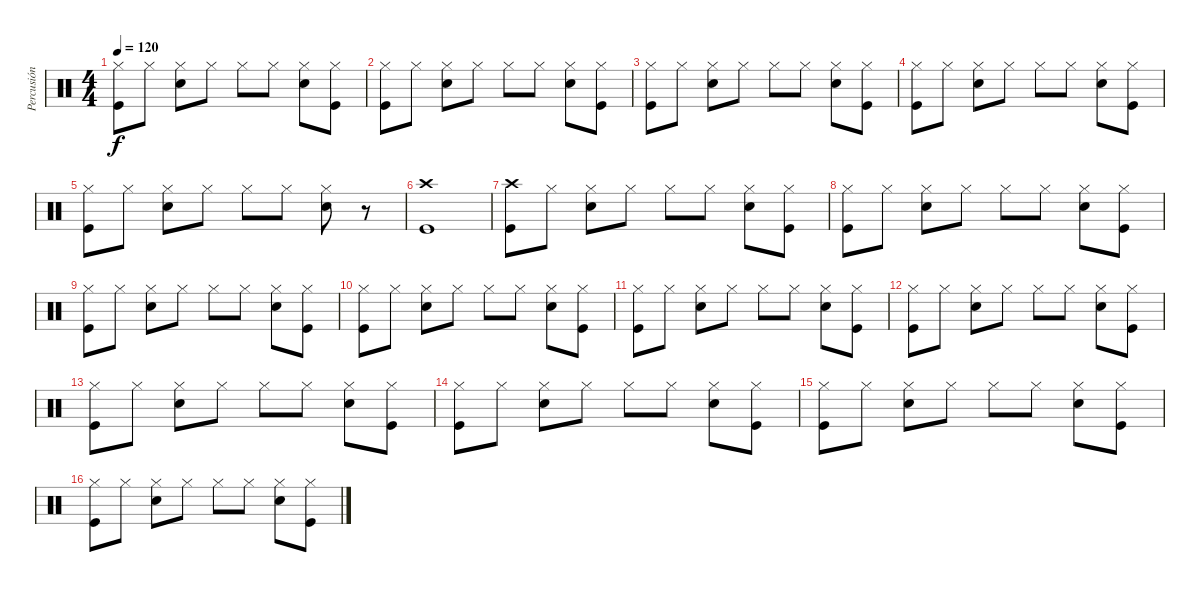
\track ("Percusión" "Percusión") {instrument percussion}
\staff {score}
\articulation defaults
\ts (4 4)
\tempo 120
\clef neutral
\ks c
("Hi-Hat (closed)" "Kick (hit)").8{dy f} "Hi-Hat (closed)".8 ("Hi-Hat (closed)" "Snare (hit) 2").8 "Hi-Hat (closed)".8 "Hi-Hat (closed)".8 "Hi-Hat (closed)".8 ("Hi-Hat (closed)" "Snare (hit) 2").8 ("Hi-Hat (closed)" "Kick (hit)").8 |
("Hi-Hat (closed)" "Kick (hit)").8 "Hi-Hat (closed)".8 ("Hi-Hat (closed)" "Snare (hit) 2").8 "Hi-Hat (closed)".8 "Hi-Hat (closed)".8 "Hi-Hat (closed)".8 ("Hi-Hat (closed)" "Snare (hit) 2").8 ("Hi-Hat (closed)" "Kick (hit)").8 |
("Hi-Hat (closed)" "Kick (hit)").8 "Hi-Hat (closed)".8 ("Hi-Hat (closed)" "Snare (hit) 2").8 "Hi-Hat (closed)".8 "Hi-Hat (closed)".8 "Hi-Hat (closed)".8 ("Hi-Hat (closed)" "Snare (hit) 2").8 ("Hi-Hat (closed)" "Kick (hit)").8 |
("Hi-Hat (closed)" "Kick (hit)").8 "Hi-Hat (closed)".8 ("Hi-Hat (closed)" "Snare (hit) 2").8 "Hi-Hat (closed)".8 "Hi-Hat (closed)".8 "Hi-Hat (closed)".8 ("Hi-Hat (closed)" "Snare (hit) 2").8 ("Hi-Hat (closed)" "Kick (hit)").8 |
("Hi-Hat (closed)" "Kick (hit)").8 "Hi-Hat (closed)".8 ("Hi-Hat (closed)" "Snare (hit) 2").8 "Hi-Hat (closed)".8 "Hi-Hat (closed)".8 "Hi-Hat (closed)".8 ("Hi-Hat (closed)" "Snare (hit) 2").8 r.8 |
("Crash high (hit)" "Kick (hit)").1 |
("Crash high (hit)" "Kick (hit)").8 "Hi-Hat (closed)".8 ("Hi-Hat (closed)" "Snare (hit) 2").8 "Hi-Hat (closed)".8 "Hi-Hat (closed)".8 "Hi-Hat (closed)".8 ("Hi-Hat (closed)" "Snare (hit) 2").8 ("Hi-Hat (closed)" "Kick (hit)").8 |
("Hi-Hat (closed)" "Kick (hit)").8 "Hi-Hat (closed)".8 ("Hi-Hat (closed)" "Snare (hit) 2").8 "Hi-Hat (closed)".8 "Hi-Hat (closed)".8 "Hi-Hat (closed)".8 ("Hi-Hat (closed)" "Snare (hit) 2").8 ("Hi-Hat (closed)" "Kick (hit)").8 |
("Hi-Hat (closed)" "Kick (hit)").8 "Hi-Hat (closed)".8 ("Hi-Hat (closed)" "Snare (hit) 2").8 "Hi-Hat (closed)".8 "Hi-Hat (closed)".8 "Hi-Hat (closed)".8 ("Hi-Hat (closed)" "Snare (hit) 2").8 ("Hi-Hat (closed)" "Kick (hit)").8 |
("Hi-Hat (closed)" "Kick (hit)").8 "Hi-Hat (closed)".8 ("Hi-Hat (closed)" "Snare (hit) 2").8 "Hi-Hat (closed)".8 "Hi-Hat (closed)".8 "Hi-Hat (closed)".8 ("Hi-Hat (closed)" "Snare (hit) 2").8 ("Hi-Hat (closed)" "Kick (hit)").8 |
("Hi-Hat (closed)" "Kick (hit)").8 "Hi-Hat (closed)".8 ("Hi-Hat (closed)" "Snare (hit) 2").8 "Hi-Hat (closed)".8 "Hi-Hat (closed)".8 "Hi-Hat (closed)".8 ("Hi-Hat (closed)" "Snare (hit) 2").8 ("Hi-Hat (closed)" "Kick (hit)").8 |
("Hi-Hat (closed)" "Kick (hit)").8 "Hi-Hat (closed)".8 ("Hi-Hat (closed)" "Snare (hit) 2").8 "Hi-Hat (closed)".8 "Hi-Hat (closed)".8 "Hi-Hat (closed)".8 ("Hi-Hat (closed)" "Snare (hit) 2").8 ("Hi-Hat (closed)" "Kick (hit)").8 |
("Hi-Hat (closed)" "Kick (hit)").8 "Hi-Hat (closed)".8 ("Hi-Hat (closed)" "Snare (hit) 2").8 "Hi-Hat (closed)".8 "Hi-Hat (closed)".8 "Hi-Hat (closed)".8 ("Hi-Hat (closed)" "Snare (hit) 2").8 ("Hi-Hat (closed)" "Kick (hit)").8 |
("Hi-Hat (closed)" "Kick (hit)").8 "Hi-Hat (closed)".8 ("Hi-Hat (closed)" "Snare (hit) 2").8 "Hi-Hat (closed)".8 "Hi-Hat (closed)".8 "Hi-Hat (closed)".8 ("Hi-Hat (closed)" "Snare (hit) 2").8 ("Hi-Hat (closed)" "Kick (hit)").8 |
("Hi-Hat (closed)" "Kick (hit)").8 "Hi-Hat (closed)".8 ("Hi-Hat (closed)" "Snare (hit) 2").8 "Hi-Hat (closed)".8 "Hi-Hat (closed)".8 "Hi-Hat (closed)".8 ("Hi-Hat (closed)" "Snare (hit) 2").8 ("Hi-Hat (closed)" "Kick (hit)").8 |
("Hi-Hat (closed)" "Kick (hit)").8 "Hi-Hat (closed)".8 ("Hi-Hat (closed)" "Snare (hit) 2").8 "Hi-Hat (closed)".8 "Hi-Hat (closed)".8 "Hi-Hat (closed)".8 ("Hi-Hat (closed)" "Snare (hit) 2").8 ("Hi-Hat (closed)" "Kick (hit)").8
